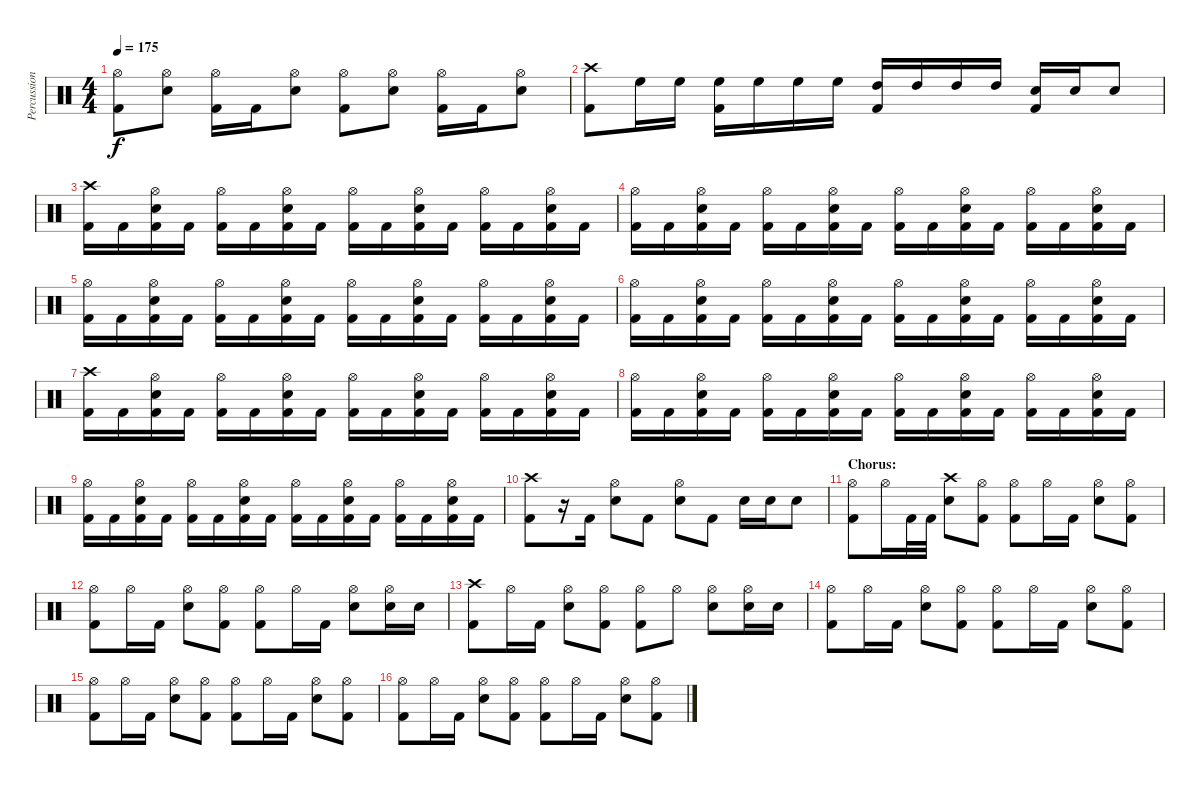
\track ("Percussion" "Percussion") {instrument percussion}
\staff {score}
\articulation defaults
\ts (4 4)
\tempo 175
\clef neutral
\ks c
("Hi-Hat (open)" "Kick (hit) 2").8{dy f} ("Hi-Hat (open)" "Electric Snare (hit)").8 ("Hi-Hat (open)" "Kick (hit) 2").16 "Kick (hit) 2".16 ("Hi-Hat (open)" "Electric Snare (hit)").8 ("Hi-Hat (open)" "Kick (hit) 2").8 ("Hi-Hat (open)" "Electric Snare (hit)").8 ("Hi-Hat (open)" "Kick (hit) 2").16 "Kick (hit) 2".16 ("Hi-Hat (open)" "Electric Snare (hit)").8 |
("Crash high (hit)" "Kick (hit) 2").8 "High Floor Tom (hit)".16 "High Floor Tom (hit)".16 ("High Floor Tom (hit)" "Kick (hit) 2").16 "High Floor Tom (hit)".16 "High Floor Tom (hit)".16 "High Floor Tom (hit)".16 ("High Tom (hit)" "Kick (hit) 2").16 "High Tom (hit)".16 "High Tom (hit)".16 "High Tom (hit)".16 ("Electric Snare (hit)" "Kick (hit) 2").16 "Electric Snare (hit)".16 "Electric Snare (hit)".8 |
("Crash high (hit)" "Kick (hit) 2").16 "Kick (hit) 2".16 ("Hi-Hat (open)" "Electric Snare (hit)" "Kick (hit) 2").16 "Kick (hit) 2".16 ("Hi-Hat (open)" "Kick (hit) 2").16 "Kick (hit) 2".16 ("Hi-Hat (open)" "Electric Snare (hit)" "Kick (hit) 2").16 "Kick (hit) 2".16 ("Hi-Hat (open)" "Kick (hit) 2").16 "Kick (hit) 2".16 ("Hi-Hat (open)" "Electric Snare (hit)" "Kick (hit) 2").16 "Kick (hit) 2".16 ("Hi-Hat (open)" "Kick (hit) 2").16 "Kick (hit) 2".16 ("Hi-Hat (open)" "Electric Snare (hit)" "Kick (hit) 2").16 "Kick (hit) 2".16 |
("Hi-Hat (open)" "Kick (hit) 2").16 "Kick (hit) 2".16 ("Hi-Hat (open)" "Electric Snare (hit)" "Kick (hit) 2").16 "Kick (hit) 2".16 ("Hi-Hat (open)" "Kick (hit) 2").16 "Kick (hit) 2".16 ("Hi-Hat (open)" "Electric Snare (hit)" "Kick (hit) 2").16 "Kick (hit) 2".16 ("Hi-Hat (open)" "Kick (hit) 2").16 "Kick (hit) 2".16 ("Hi-Hat (open)" "Electric Snare (hit)" "Kick (hit) 2").16 "Kick (hit) 2".16 ("Hi-Hat (open)" "Kick (hit) 2").16 "Kick (hit) 2".16 ("Hi-Hat (open)" "Electric Snare (hit)" "Kick (hit) 2").16 "Kick (hit) 2".16 |
("Hi-Hat (open)" "Kick (hit) 2").16 "Kick (hit) 2".16 ("Hi-Hat (open)" "Electric Snare (hit)" "Kick (hit) 2").16 "Kick (hit) 2".16 ("Hi-Hat (open)" "Kick (hit) 2").16 "Kick (hit) 2".16 ("Hi-Hat (open)" "Electric Snare (hit)" "Kick (hit) 2").16 "Kick (hit) 2".16 ("Hi-Hat (open)" "Kick (hit) 2").16 "Kick (hit) 2".16 ("Hi-Hat (open)" "Electric Snare (hit)" "Kick (hit) 2").16 "Kick (hit) 2".16 ("Hi-Hat (open)" "Kick (hit) 2").16 "Kick (hit) 2".16 ("Hi-Hat (open)" "Electric Snare (hit)" "Kick (hit) 2").16 "Kick (hit) 2".16 |
("Hi-Hat (open)" "Kick (hit) 2").16 "Kick (hit) 2".16 ("Hi-Hat (open)" "Electric Snare (hit)" "Kick (hit) 2").16 "Kick (hit) 2".16 ("Hi-Hat (open)" "Kick (hit) 2").16 "Kick (hit) 2".16 ("Hi-Hat (open)" "Electric Snare (hit)" "Kick (hit) 2").16 "Kick (hit) 2".16 ("Hi-Hat (open)" "Kick (hit) 2").16 "Kick (hit) 2".16 ("Hi-Hat (open)" "Electric Snare (hit)" "Kick (hit) 2").16 "Kick (hit) 2".16 ("Hi-Hat (open)" "Kick (hit) 2").16 "Kick (hit) 2".16 ("Hi-Hat (open)" "Electric Snare (hit)" "Kick (hit) 2").16 "Kick (hit) 2".16 |
("Crash high (hit)" "Kick (hit) 2").16 "Kick (hit) 2".16 ("Hi-Hat (open)" "Electric Snare (hit)" "Kick (hit) 2").16 "Kick (hit) 2".16 ("Hi-Hat (open)" "Kick (hit) 2").16 "Kick (hit) 2".16 ("Hi-Hat (open)" "Electric Snare (hit)" "Kick (hit) 2").16 "Kick (hit) 2".16 ("Hi-Hat (open)" "Kick (hit) 2").16 "Kick (hit) 2".16 ("Hi-Hat (open)" "Electric Snare (hit)" "Kick (hit) 2").16 "Kick (hit) 2".16 ("Hi-Hat (open)" "Kick (hit) 2").16 "Kick (hit) 2".16 ("Hi-Hat (open)" "Electric Snare (hit)" "Kick (hit) 2").16 "Kick (hit) 2".16 |
("Hi-Hat (open)" "Kick (hit) 2").16 "Kick (hit) 2".16 ("Hi-Hat (open)" "Electric Snare (hit)" "Kick (hit) 2").16 "Kick (hit) 2".16 ("Hi-Hat (open)" "Kick (hit) 2").16 "Kick (hit) 2".16 ("Hi-Hat (open)" "Electric Snare (hit)" "Kick (hit) 2").16 "Kick (hit) 2".16 ("Hi-Hat (open)" "Kick (hit) 2").16 "Kick (hit) 2".16 ("Hi-Hat (open)" "Electric Snare (hit)" "Kick (hit) 2").16 "Kick (hit) 2".16 ("Hi-Hat (open)" "Kick (hit) 2").16 "Kick (hit) 2".16 ("Hi-Hat (open)" "Electric Snare (hit)" "Kick (hit) 2").16 "Kick (hit) 2".16 |
("Hi-Hat (open)" "Kick (hit) 2").16 "Kick (hit) 2".16 ("Hi-Hat (open)" "Electric Snare (hit)" "Kick (hit) 2").16 "Kick (hit) 2".16 ("Hi-Hat (open)" "Kick (hit) 2").16 "Kick (hit) 2".16 ("Hi-Hat (open)" "Electric Snare (hit)" "Kick (hit) 2").16 "Kick (hit) 2".16 ("Hi-Hat (open)" "Kick (hit) 2").16 "Kick (hit) 2".16 ("Hi-Hat (open)" "Electric Snare (hit)" "Kick (hit) 2").16 "Kick (hit) 2".16 ("Hi-Hat (open)" "Kick (hit) 2").16 "Kick (hit) 2".16 ("Hi-Hat (open)" "Electric Snare (hit)" "Kick (hit) 2").16 "Kick (hit) 2".16 |
("Crash high (hit)" "Kick (hit) 2").8 r.16 "Kick (hit) 2".16 ("Hi-Hat (open)" "Electric Snare (hit)").8 "Kick (hit) 2".8 ("Hi-Hat (open)" "Electric Snare (hit)").8 "Kick (hit) 2".8 "Electric Snare (hit)".16 "Electric Snare (hit)".16 "Electric Snare (hit)".8 |
\section ("" "Chorus:")
("Hi-Hat (open)" "Kick (hit) 2").8 "Hi-Hat (open)".16 "Kick (hit) 2".32 "Kick (hit) 2".32 ("Crash high (hit)" "Electric Snare (hit)").8 ("Hi-Hat (open)" "Kick (hit) 2").8 ("Hi-Hat (open)" "Kick (hit) 2").8 "Hi-Hat (open)".16 "Kick (hit) 2".16 ("Hi-Hat (open)" "Electric Snare (hit)").8 ("Hi-Hat (open)" "Kick (hit) 2").8 |
("Hi-Hat (open)" "Kick (hit) 2").8 "Hi-Hat (open)".16 "Kick (hit) 2".16 ("Hi-Hat (open)" "Electric Snare (hit)").8 ("Hi-Hat (open)" "Kick (hit) 2").8 ("Hi-Hat (open)" "Kick (hit) 2").8 "Hi-Hat (open)".16 "Kick (hit) 2".16 ("Hi-Hat (open)" "Electric Snare (hit)").8 ("Hi-Hat (open)" "Electric Snare (hit)").16 "Electric Snare (hit)".16 |
("Crash high (hit)" "Kick (hit) 2").8 "Hi-Hat (open)".16 "Kick (hit) 2".16 ("Hi-Hat (open)" "Electric Snare (hit)").8 ("Hi-Hat (open)" "Kick (hit) 2").8 ("Hi-Hat (open)" "Kick (hit) 2").8 "Hi-Hat (open)".8 ("Hi-Hat (open)" "Electric Snare (hit)").8 ("Hi-Hat (open)" "Electric Snare (hit)").16 "Electric Snare (hit)".16 |
("Hi-Hat (open)" "Kick (hit) 2").8 "Hi-Hat (open)".16 "Kick (hit) 2".16 ("Hi-Hat (open)" "Electric Snare (hit)").8 ("Hi-Hat (open)" "Kick (hit) 2").8 ("Hi-Hat (open)" "Kick (hit) 2").8 "Hi-Hat (open)".16 "Kick (hit) 2".16 ("Hi-Hat (open)" "Electric Snare (hit)").8 ("Hi-Hat (open)" "Kick (hit) 2").8 |
("Hi-Hat (open)" "Kick (hit) 2").8 "Hi-Hat (open)".16 "Kick (hit) 2".16 ("Hi-Hat (open)" "Electric Snare (hit)").8 ("Hi-Hat (open)" "Kick (hit) 2").8 ("Hi-Hat (open)" "Kick (hit) 2").8 "Hi-Hat (open)".16 "Kick (hit) 2".16 ("Hi-Hat (open)" "Electric Snare (hit)").8 ("Hi-Hat (open)" "Kick (hit) 2").8 |
("Hi-Hat (open)" "Kick (hit) 2").8 "Hi-Hat (open)".16 "Kick (hit) 2".16 ("Hi-Hat (open)" "Electric Snare (hit)").8 ("Hi-Hat (open)" "Kick (hit) 2").8 ("Hi-Hat (open)" "Kick (hit) 2").8 "Hi-Hat (open)".16 "Kick (hit) 2".16 ("Hi-Hat (open)" "Electric Snare (hit)").8 ("Hi-Hat (open)" "Kick (hit) 2").8
